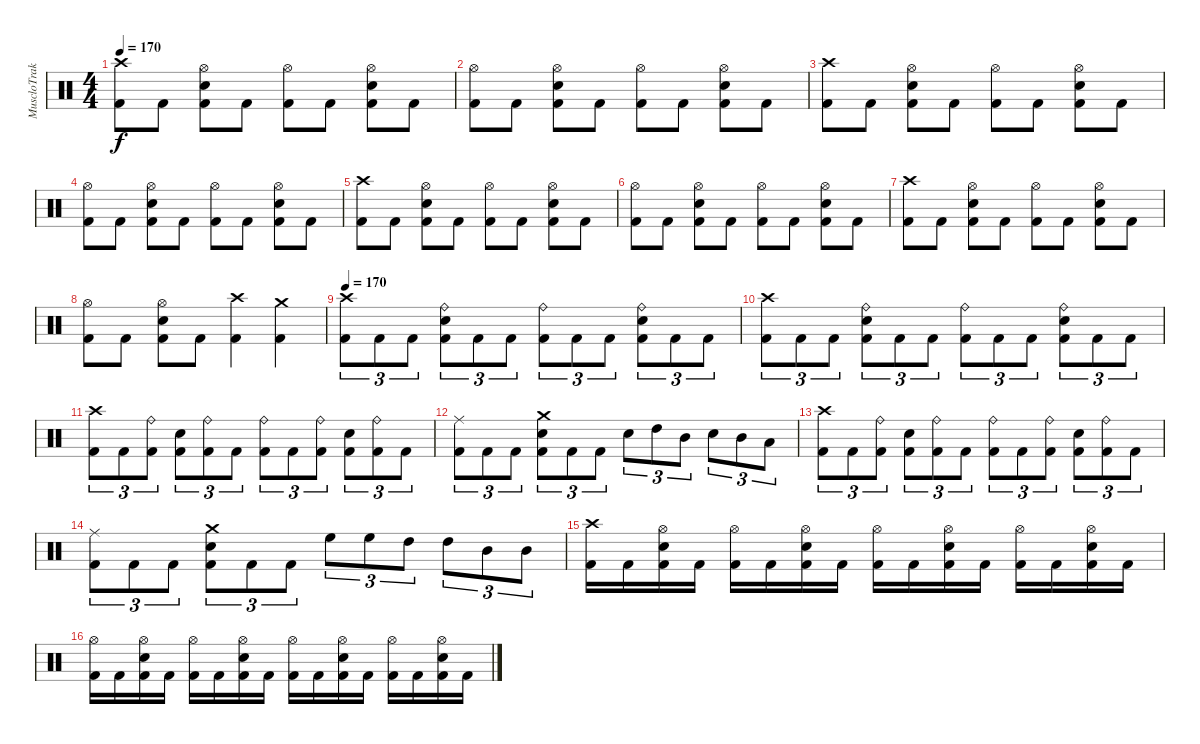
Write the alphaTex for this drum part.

\track ("MuscloTraktor" "MuscloTrak") {instrument percussion}
\staff {score}
\articulation defaults
\ts (4 4)
\tempo 170
\clef neutral
\ks c
("Kick (hit) 2" "Crash high (hit)").8{dy f} "Kick (hit) 2".8 ("Kick (hit) 2" "Electric Snare (hit)" "Hi-Hat (open)").8 "Kick (hit) 2".8 ("Kick (hit) 2" "Hi-Hat (open)").8 "Kick (hit) 2".8 ("Kick (hit) 2" "Electric Snare (hit)" "Hi-Hat (open)").8 "Kick (hit) 2".8 |
("Kick (hit) 2" "Hi-Hat (open)").8 "Kick (hit) 2".8 ("Kick (hit) 2" "Electric Snare (hit)" "Hi-Hat (open)").8 "Kick (hit) 2".8 ("Kick (hit) 2" "Hi-Hat (open)").8 "Kick (hit) 2".8 ("Kick (hit) 2" "Electric Snare (hit)" "Hi-Hat (open)").8 "Kick (hit) 2".8 |
("Kick (hit) 2" "Crash high (hit)").8 "Kick (hit) 2".8 ("Kick (hit) 2" "Electric Snare (hit)" "Hi-Hat (open)").8 "Kick (hit) 2".8 ("Kick (hit) 2" "Hi-Hat (open)").8 "Kick (hit) 2".8 ("Kick (hit) 2" "Electric Snare (hit)" "Hi-Hat (open)").8 "Kick (hit) 2".8 |
("Kick (hit) 2" "Hi-Hat (open)").8 "Kick (hit) 2".8 ("Kick (hit) 2" "Electric Snare (hit)" "Hi-Hat (open)").8 "Kick (hit) 2".8 ("Kick (hit) 2" "Hi-Hat (open)").8 "Kick (hit) 2".8 ("Kick (hit) 2" "Electric Snare (hit)" "Hi-Hat (open)").8 "Kick (hit) 2".8 |
("Kick (hit) 2" "Crash high (hit)").8 "Kick (hit) 2".8 ("Kick (hit) 2" "Electric Snare (hit)" "Hi-Hat (open)").8 "Kick (hit) 2".8 ("Kick (hit) 2" "Hi-Hat (open)").8 "Kick (hit) 2".8 ("Kick (hit) 2" "Electric Snare (hit)" "Hi-Hat (open)").8 "Kick (hit) 2".8 |
("Kick (hit) 2" "Hi-Hat (open)").8 "Kick (hit) 2".8 ("Kick (hit) 2" "Electric Snare (hit)" "Hi-Hat (open)").8 "Kick (hit) 2".8 ("Kick (hit) 2" "Hi-Hat (open)").8 "Kick (hit) 2".8 ("Kick (hit) 2" "Electric Snare (hit)" "Hi-Hat (open)").8 "Kick (hit) 2".8 |
("Kick (hit) 2" "Crash high (hit)").8 "Kick (hit) 2".8 ("Kick (hit) 2" "Electric Snare (hit)" "Hi-Hat (open)").8 "Kick (hit) 2".8 ("Kick (hit) 2" "Hi-Hat (open)").8 "Kick (hit) 2".8 ("Kick (hit) 2" "Electric Snare (hit)" "Hi-Hat (open)").8 "Kick (hit) 2".8 |
("Kick (hit) 2" "Hi-Hat (open)").8 "Kick (hit) 2".8 ("Kick (hit) 2" "Electric Snare (hit)" "Hi-Hat (open)").8 "Kick (hit) 2".8 ("Kick (hit) 2" "Crash high (hit)").4 ("Kick (hit) 2" "Crash medium (hit)").4 |
\tempo 170
("Kick (hit) 2" "Crash high (hit)").8{tu (3 2)} "Kick (hit) 2".8{tu (3 2)} "Kick (hit) 2".8{tu (3 2)} ("Kick (hit) 2" "Electric Snare (hit)" "Ride (bell)").8{tu (3 2)} "Kick (hit) 2".8{tu (3 2)} "Kick (hit) 2".8{tu (3 2)} ("Kick (hit) 2" "Ride (bell)").8{tu (3 2)} "Kick (hit) 2".8{tu (3 2)} "Kick (hit) 2".8{tu (3 2)} ("Kick (hit) 2" "Electric Snare (hit)" "Ride (bell)").8{tu (3 2)} "Kick (hit) 2".8{tu (3 2)} "Kick (hit) 2".8{tu (3 2)} |
("Kick (hit) 2" "Crash high (hit)").8{tu (3 2)} "Kick (hit) 2".8{tu (3 2)} "Kick (hit) 2".8{tu (3 2)} ("Kick (hit) 2" "Electric Snare (hit)" "Ride (bell)").8{tu (3 2)} "Kick (hit) 2".8{tu (3 2)} "Kick (hit) 2".8{tu (3 2)} ("Kick (hit) 2" "Ride (bell)").8{tu (3 2)} "Kick (hit) 2".8{tu (3 2)} "Kick (hit) 2".8{tu (3 2)} ("Kick (hit) 2" "Electric Snare (hit)" "Ride (bell)").8{tu (3 2)} "Kick (hit) 2".8{tu (3 2)} "Kick (hit) 2".8{tu (3 2)} |
("Kick (hit) 2" "Crash high (hit)").8{tu (3 2)} "Kick (hit) 2".8{tu (3 2)} ("Kick (hit) 2" "Ride (bell)").8{tu (3 2)} ("Kick (hit) 2" "Electric Snare (hit)").8{tu (3 2)} ("Kick (hit) 2" "Ride (bell)").8{tu (3 2)} "Kick (hit) 2".8{tu (3 2)} ("Kick (hit) 2" "Ride (bell)").8{tu (3 2)} "Kick (hit) 2".8{tu (3 2)} ("Kick (hit) 2" "Ride (bell)").8{tu (3 2)} ("Kick (hit) 2" "Electric Snare (hit)").8{tu (3 2)} ("Kick (hit) 2" "Ride (bell)").8{tu (3 2)} "Kick (hit) 2".8{tu (3 2)} |
("Kick (hit) 2" "Ride (middle)").8{tu (3 2)} "Kick (hit) 2".8{tu (3 2)} "Kick (hit) 2".8{tu (3 2)} ("Kick (hit) 2" "Electric Snare (hit)" "Crash medium (hit)").8{tu (3 2)} "Kick (hit) 2".8{tu (3 2)} "Kick (hit) 2".8{tu (3 2)} "Electric Snare (hit)".8{tu (3 2)} "High Tom (hit)".8{tu (3 2)} "Mid Tom (hit)".8{tu (3 2)} "Electric Snare (hit)".8{tu (3 2)} "Mid Tom (hit)".8{tu (3 2)} "Low Tom (hit)".8{tu (3 2)} |
("Kick (hit) 2" "Crash high (hit)").8{tu (3 2)} "Kick (hit) 2".8{tu (3 2)} ("Kick (hit) 2" "Ride (bell)").8{tu (3 2)} ("Kick (hit) 2" "Electric Snare (hit)").8{tu (3 2)} ("Kick (hit) 2" "Ride (bell)").8{tu (3 2)} "Kick (hit) 2".8{tu (3 2)} ("Kick (hit) 2" "Ride (bell)").8{tu (3 2)} "Kick (hit) 2".8{tu (3 2)} ("Kick (hit) 2" "Ride (bell)").8{tu (3 2)} ("Kick (hit) 2" "Electric Snare (hit)").8{tu (3 2)} ("Kick (hit) 2" "Ride (bell)").8{tu (3 2)} "Kick (hit) 2".8{tu (3 2)} |
("Kick (hit) 2" "Ride (middle)").8{tu (3 2)} "Kick (hit) 2".8{tu (3 2)} "Kick (hit) 2".8{tu (3 2)} ("Kick (hit) 2" "Electric Snare (hit)" "Crash medium (hit)").8{tu (3 2)} "Kick (hit) 2".8{tu (3 2)} "Kick (hit) 2".8{tu (3 2)} "High Floor Tom (hit)".8{tu (3 2)} "High Floor Tom (hit)".8{tu (3 2)} "High Tom (hit)".8{tu (3 2)} "High Tom (hit)".8{tu (3 2)} "Mid Tom (hit)".8{tu (3 2)} "Mid Tom (hit)".8{tu (3 2)} |
("Kick (hit) 2" "Crash high (hit)").16 "Kick (hit) 2".16 ("Kick (hit) 2" "Electric Snare (hit)" "Hi-Hat (open)").16 "Kick (hit) 2".16 ("Kick (hit) 2" "Hi-Hat (open)").16 "Kick (hit) 2".16 ("Kick (hit) 2" "Electric Snare (hit)" "Hi-Hat (open)").16 "Kick (hit) 2".16 ("Kick (hit) 2" "Hi-Hat (open)").16 "Kick (hit) 2".16 ("Kick (hit) 2" "Electric Snare (hit)" "Hi-Hat (open)").16 "Kick (hit) 2".16 ("Kick (hit) 2" "Hi-Hat (open)").16 "Kick (hit) 2".16 ("Kick (hit) 2" "Electric Snare (hit)" "Hi-Hat (open)").16 "Kick (hit) 2".16 |
("Kick (hit) 2" "Hi-Hat (open)").16 "Kick (hit) 2".16 ("Kick (hit) 2" "Electric Snare (hit)" "Hi-Hat (open)").16 "Kick (hit) 2".16 ("Kick (hit) 2" "Hi-Hat (open)").16 "Kick (hit) 2".16 ("Kick (hit) 2" "Electric Snare (hit)" "Hi-Hat (open)").16 "Kick (hit) 2".16 ("Kick (hit) 2" "Hi-Hat (open)").16 "Kick (hit) 2".16 ("Kick (hit) 2" "Electric Snare (hit)" "Hi-Hat (open)").16 "Kick (hit) 2".16 ("Kick (hit) 2" "Hi-Hat (open)").16 "Kick (hit) 2".16 ("Kick (hit) 2" "Electric Snare (hit)" "Hi-Hat (open)").16 "Kick (hit) 2".16
